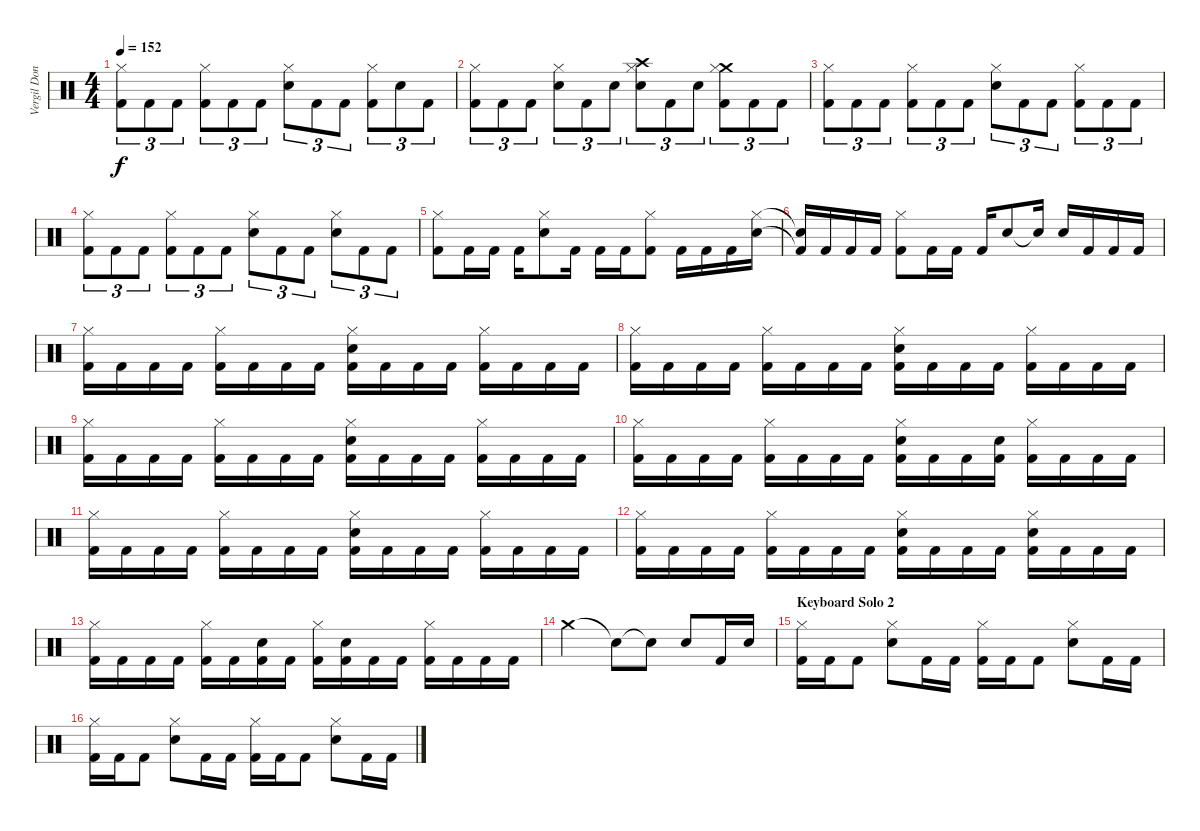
\track ("Vergil Donati" "Vergil Don") {instrument percussion}
\staff {score}
\articulation defaults
\ts (4 4)
\tempo 152
\clef neutral
\ks c
("Hi-Hat (closed)" "Kick (hit) 2").8{tu (3 2) dy f} "Kick (hit) 2".8{tu (3 2)} "Kick (hit) 2".8{tu (3 2)} ("Hi-Hat (closed)" "Kick (hit) 2").8{tu (3 2)} "Kick (hit) 2".8{tu (3 2)} "Kick (hit) 2".8{tu (3 2)} ("Hi-Hat (closed)" "Electric Snare (hit)").8{tu (3 2)} "Kick (hit) 2".8{tu (3 2)} "Kick (hit) 2".8{tu (3 2)} ("Hi-Hat (closed)" "Kick (hit) 2").8{tu (3 2)} "Electric Snare (hit)".8{tu (3 2)} "Kick (hit) 2".8{tu (3 2)} |
("Hi-Hat (closed)" "Kick (hit) 2").8{tu (3 2)} "Kick (hit) 2".8{tu (3 2)} "Kick (hit) 2".8{tu (3 2)} ("Hi-Hat (closed)" "Electric Snare (hit)").8{tu (3 2)} "Kick (hit) 2".8{tu (3 2)} "Electric Snare (hit)".8{tu (3 2)} ("Crash high (hit)" "Hi-Hat (closed)" "Electric Snare (hit)").8{tu (3 2)} "Kick (hit) 2".8{tu (3 2)} "Electric Snare (hit)".8{tu (3 2)} ("Crash medium (hit)" "Hi-Hat (closed)" "Kick (hit) 2").8{tu (3 2)} "Kick (hit) 2".8{tu (3 2)} "Kick (hit) 2".8{tu (3 2)} |
("Hi-Hat (closed)" "Kick (hit) 2").8{tu (3 2)} "Kick (hit) 2".8{tu (3 2)} "Kick (hit) 2".8{tu (3 2)} ("Hi-Hat (closed)" "Kick (hit) 2").8{tu (3 2)} "Kick (hit) 2".8{tu (3 2)} "Kick (hit) 2".8{tu (3 2)} ("Hi-Hat (closed)" "Electric Snare (hit)").8{tu (3 2)} "Kick (hit) 2".8{tu (3 2)} "Kick (hit) 2".8{tu (3 2)} ("Hi-Hat (closed)" "Kick (hit) 2").8{tu (3 2)} "Kick (hit) 2".8{tu (3 2)} "Kick (hit) 2".8{tu (3 2)} |
("Hi-Hat (closed)" "Kick (hit) 2").8{tu (3 2)} "Kick (hit) 2".8{tu (3 2)} "Kick (hit) 2".8{tu (3 2)} ("Hi-Hat (closed)" "Kick (hit) 2").8{tu (3 2)} "Kick (hit) 2".8{tu (3 2)} "Kick (hit) 2".8{tu (3 2)} ("Hi-Hat (closed)" "Electric Snare (hit)").8{tu (3 2)} "Kick (hit) 2".8{tu (3 2)} "Kick (hit) 2".8{tu (3 2)} ("Hi-Hat (closed)" "Electric Snare (hit)").8{tu (3 2)} "Kick (hit) 2".8{tu (3 2)} "Kick (hit) 2".8{tu (3 2)} |
("Hi-Hat (closed)" "Kick (hit) 2").8 "Kick (hit) 2".16 "Kick (hit) 2".16 "Kick (hit) 2".16 ("Hi-Hat (closed)" "Electric Snare (hit)").8 "Kick (hit) 2".16 "Kick (hit) 2".16 "Kick (hit) 2".16 ("Hi-Hat (closed)" "Kick (hit) 2").8 "Kick (hit) 2".16 "Kick (hit) 2".16 "Kick (hit) 2".16 ("Hi-Hat (closed)" "Electric Snare (hit)").16 |
("Snare (hit)"{t} "Kick (hit) 2"{t}).16 "Kick (hit) 2".16 "Kick (hit) 2".16 "Kick (hit) 2".16 ("Hi-Hat (closed)" "Kick (hit) 2").8 "Kick (hit) 2".16 "Kick (hit) 2".16 "Kick (hit) 2".16 "Electric Snare (hit)".8 "Electric Snare (hit)"{t}.16 "Electric Snare (hit)".16 "Kick (hit) 2".16 "Kick (hit) 2".16 "Kick (hit) 2".16 |
("Hi-Hat (closed)" "Kick (hit) 2").16 "Kick (hit) 2".16 "Kick (hit) 2".16 "Kick (hit) 2".16 ("Hi-Hat (closed)" "Kick (hit) 2").16 "Kick (hit) 2".16 "Kick (hit) 2".16 "Kick (hit) 2".16 ("Electric Snare (hit)" "Hi-Hat (closed)" "Kick (hit) 2").16 "Kick (hit) 2".16 "Kick (hit) 2".16 "Kick (hit) 2".16 ("Hi-Hat (closed)" "Kick (hit) 2").16 "Kick (hit) 2".16 "Kick (hit) 2".16 "Kick (hit) 2".16 |
("Hi-Hat (closed)" "Kick (hit) 2").16 "Kick (hit) 2".16 "Kick (hit) 2".16 "Kick (hit) 2".16 ("Hi-Hat (closed)" "Kick (hit) 2").16 "Kick (hit) 2".16 "Kick (hit) 2".16 "Kick (hit) 2".16 ("Electric Snare (hit)" "Hi-Hat (closed)" "Kick (hit) 2").16 "Kick (hit) 2".16 "Kick (hit) 2".16 "Kick (hit) 2".16 ("Hi-Hat (closed)" "Kick (hit) 2").16 "Kick (hit) 2".16 "Kick (hit) 2".16 "Kick (hit) 2".16 |
("Hi-Hat (closed)" "Kick (hit) 2").16 "Kick (hit) 2".16 "Kick (hit) 2".16 "Kick (hit) 2".16 ("Hi-Hat (closed)" "Kick (hit) 2").16 "Kick (hit) 2".16 "Kick (hit) 2".16 "Kick (hit) 2".16 ("Electric Snare (hit)" "Hi-Hat (closed)" "Kick (hit) 2").16 "Kick (hit) 2".16 "Kick (hit) 2".16 "Kick (hit) 2".16 ("Hi-Hat (closed)" "Kick (hit) 2").16 "Kick (hit) 2".16 "Kick (hit) 2".16 "Kick (hit) 2".16 |
("Hi-Hat (closed)" "Kick (hit) 2").16 "Kick (hit) 2".16 "Kick (hit) 2".16 "Kick (hit) 2".16 ("Hi-Hat (closed)" "Kick (hit) 2").16 "Kick (hit) 2".16 "Kick (hit) 2".16 "Kick (hit) 2".16 ("Electric Snare (hit)" "Hi-Hat (closed)" "Kick (hit) 2").16 "Kick (hit) 2".16 "Kick (hit) 2".16 ("Electric Snare (hit)" "Kick (hit) 2").16 ("Hi-Hat (closed)" "Kick (hit) 2").16 "Kick (hit) 2".16 "Kick (hit) 2".16 "Kick (hit) 2".16 |
("Hi-Hat (closed)" "Kick (hit) 2").16 "Kick (hit) 2".16 "Kick (hit) 2".16 "Kick (hit) 2".16 ("Hi-Hat (closed)" "Kick (hit) 2").16 "Kick (hit) 2".16 "Kick (hit) 2".16 "Kick (hit) 2".16 ("Electric Snare (hit)" "Hi-Hat (closed)" "Kick (hit) 2").16 "Kick (hit) 2".16 "Kick (hit) 2".16 "Kick (hit) 2".16 ("Hi-Hat (closed)" "Kick (hit) 2").16 "Kick (hit) 2".16 "Kick (hit) 2".16 "Kick (hit) 2".16 |
("Hi-Hat (closed)" "Kick (hit) 2").16 "Kick (hit) 2".16 "Kick (hit) 2".16 "Kick (hit) 2".16 ("Hi-Hat (closed)" "Kick (hit) 2").16 "Kick (hit) 2".16 "Kick (hit) 2".16 "Kick (hit) 2".16 ("Electric Snare (hit)" "Hi-Hat (closed)" "Kick (hit) 2").16 "Kick (hit) 2".16 "Kick (hit) 2".16 "Kick (hit) 2".16 ("Electric Snare (hit)" "Hi-Hat (closed)" "Kick (hit) 2").16 "Kick (hit) 2".16 "Kick (hit) 2".16 "Kick (hit) 2".16 |
("Hi-Hat (closed)" "Kick (hit) 2").16 "Kick (hit) 2".16 "Kick (hit) 2".16 "Kick (hit) 2".16 ("Hi-Hat (closed)" "Kick (hit) 2").16 "Kick (hit) 2".16 ("Electric Snare (hit)" "Kick (hit) 2").16 "Kick (hit) 2".16 ("Hi-Hat (closed)" "Kick (hit) 2").16 ("Electric Snare (hit)" "Kick (hit) 2").16 "Kick (hit) 2".16 "Kick (hit) 2".16 ("Hi-Hat (closed)" "Kick (hit) 2").16 "Kick (hit) 2".16 "Kick (hit) 2".16 "Kick (hit) 2".16 |
"Crash medium (hit)".2 "Snare (hit)"{t}.8 "Snare (hit)"{t}.8 "Electric Snare (hit)".8 "Kick (hit) 2".16 "Electric Snare (hit)".16 |
\section ("" "Keyboard Solo 2")
("Hi-Hat (closed)" "Kick (hit) 2").16 "Kick (hit) 2".16 "Kick (hit) 2".8 ("Electric Snare (hit)" "Hi-Hat (closed)").8 "Kick (hit) 2".16 "Kick (hit) 2".16 ("Hi-Hat (closed)" "Kick (hit) 2").16 "Kick (hit) 2".16 "Kick (hit) 2".8 ("Electric Snare (hit)" "Hi-Hat (closed)").8 "Kick (hit) 2".16 "Kick (hit) 2".16 |
("Hi-Hat (closed)" "Kick (hit) 2").16 "Kick (hit) 2".16 "Kick (hit) 2".8 ("Electric Snare (hit)" "Hi-Hat (closed)").8 "Kick (hit) 2".16 "Kick (hit) 2".16 ("Hi-Hat (closed)" "Kick (hit) 2").16 "Kick (hit) 2".16 "Kick (hit) 2".8 ("Electric Snare (hit)" "Hi-Hat (closed)").8 "Kick (hit) 2".16 "Kick (hit) 2".16
